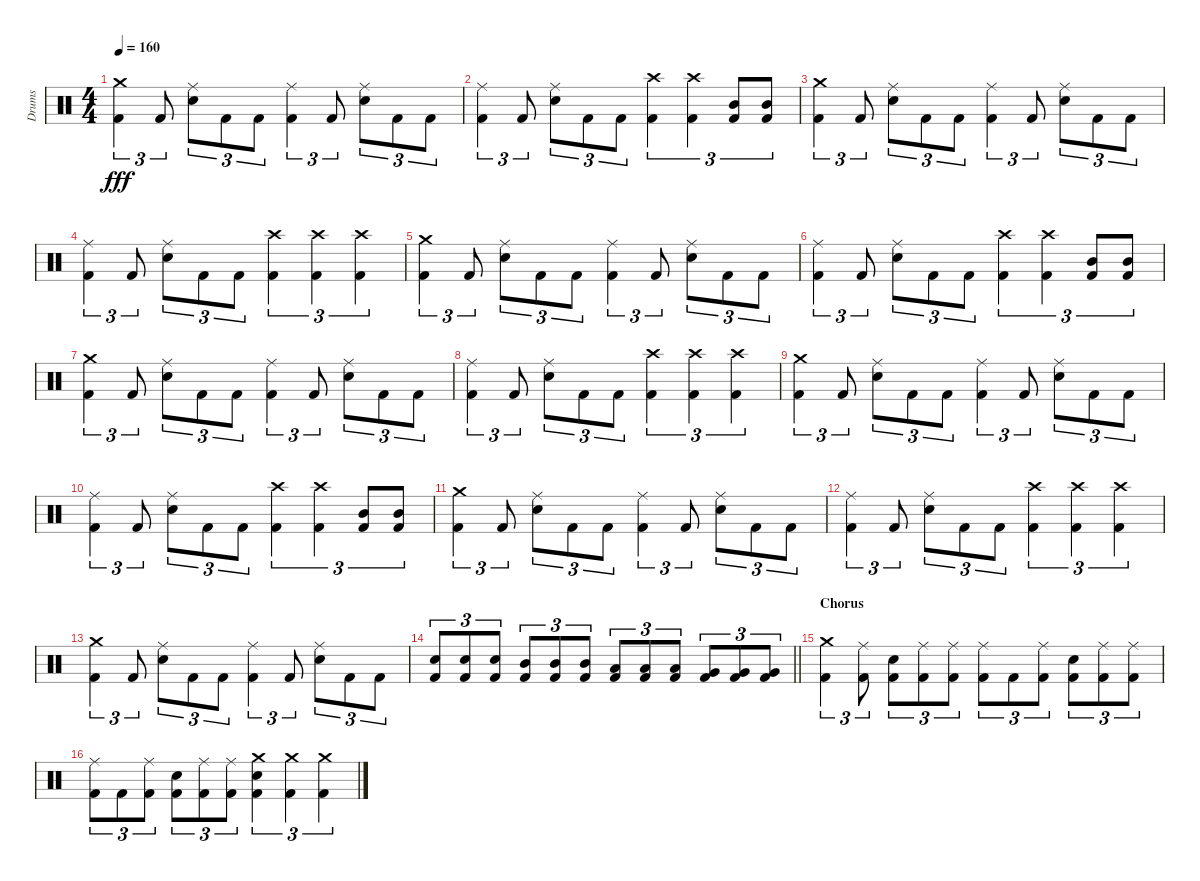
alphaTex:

\track ("Drums" "Drums") {instrument percussion}
\staff {score}
\articulation defaults
\ts (4 4)
\tempo 160
\clef neutral
\ks c
("Crash medium (hit)" "Kick (hit) 2").4{tu (3 2) dy fff} "Kick (hit) 2".8{tu (3 2)} ("Ride (middle)" "Snare (hit) 2").8{tu (3 2)} "Kick (hit) 2".8{tu (3 2)} "Kick (hit) 2".8{tu (3 2)} ("Ride (middle)" "Kick (hit) 2").4{tu (3 2)} "Kick (hit) 2".8{tu (3 2)} ("Ride (middle)" "Snare (hit) 2").8{tu (3 2)} "Kick (hit) 2".8{tu (3 2)} "Kick (hit) 2".8{tu (3 2)} |
("Ride (middle)" "Kick (hit) 2").4{tu (3 2)} "Kick (hit) 2".8{tu (3 2)} ("Ride (middle)" "Snare (hit) 2").8{tu (3 2)} "Kick (hit) 2".8{tu (3 2)} "Kick (hit) 2".8{tu (3 2)} ("Crash high (hit)" "Kick (hit) 2").4{tu (3 2)} ("Crash high (hit)" "Kick (hit) 2").4{tu (3 2)} ("Mid Tom (hit)" "Kick (hit) 2").8{tu (3 2)} ("Mid Tom (hit)" "Kick (hit) 2").8{tu (3 2)} |
("Crash medium (hit)" "Kick (hit) 2").4{tu (3 2)} "Kick (hit) 2".8{tu (3 2)} ("Ride (middle)" "Snare (hit) 2").8{tu (3 2)} "Kick (hit) 2".8{tu (3 2)} "Kick (hit) 2".8{tu (3 2)} ("Ride (middle)" "Kick (hit) 2").4{tu (3 2)} "Kick (hit) 2".8{tu (3 2)} ("Ride (middle)" "Snare (hit) 2").8{tu (3 2)} "Kick (hit) 2".8{tu (3 2)} "Kick (hit) 2".8{tu (3 2)} |
("Ride (middle)" "Kick (hit) 2").4{tu (3 2)} "Kick (hit) 2".8{tu (3 2)} ("Ride (middle)" "Snare (hit) 2").8{tu (3 2)} "Kick (hit) 2".8{tu (3 2)} "Kick (hit) 2".8{tu (3 2)} ("Crash high (hit)" "Kick (hit) 2").4{tu (3 2)} ("Crash high (hit)" "Kick (hit) 2").4{tu (3 2)} ("Crash high (hit)" "Kick (hit) 2").4{tu (3 2)} |
("Crash medium (hit)" "Kick (hit) 2").4{tu (3 2)} "Kick (hit) 2".8{tu (3 2)} ("Ride (middle)" "Snare (hit) 2").8{tu (3 2)} "Kick (hit) 2".8{tu (3 2)} "Kick (hit) 2".8{tu (3 2)} ("Ride (middle)" "Kick (hit) 2").4{tu (3 2)} "Kick (hit) 2".8{tu (3 2)} ("Ride (middle)" "Snare (hit) 2").8{tu (3 2)} "Kick (hit) 2".8{tu (3 2)} "Kick (hit) 2".8{tu (3 2)} |
("Ride (middle)" "Kick (hit) 2").4{tu (3 2)} "Kick (hit) 2".8{tu (3 2)} ("Ride (middle)" "Snare (hit) 2").8{tu (3 2)} "Kick (hit) 2".8{tu (3 2)} "Kick (hit) 2".8{tu (3 2)} ("Crash high (hit)" "Kick (hit) 2").4{tu (3 2)} ("Crash high (hit)" "Kick (hit) 2").4{tu (3 2)} ("Mid Tom (hit)" "Kick (hit) 2").8{tu (3 2)} ("Mid Tom (hit)" "Kick (hit) 2").8{tu (3 2)} |
("Crash medium (hit)" "Kick (hit) 2").4{tu (3 2)} "Kick (hit) 2".8{tu (3 2)} ("Ride (middle)" "Snare (hit) 2").8{tu (3 2)} "Kick (hit) 2".8{tu (3 2)} "Kick (hit) 2".8{tu (3 2)} ("Ride (middle)" "Kick (hit) 2").4{tu (3 2)} "Kick (hit) 2".8{tu (3 2)} ("Ride (middle)" "Snare (hit) 2").8{tu (3 2)} "Kick (hit) 2".8{tu (3 2)} "Kick (hit) 2".8{tu (3 2)} |
("Ride (middle)" "Kick (hit) 2").4{tu (3 2)} "Kick (hit) 2".8{tu (3 2)} ("Ride (middle)" "Snare (hit) 2").8{tu (3 2)} "Kick (hit) 2".8{tu (3 2)} "Kick (hit) 2".8{tu (3 2)} ("Crash high (hit)" "Kick (hit) 2").4{tu (3 2)} ("Crash high (hit)" "Kick (hit) 2").4{tu (3 2)} ("Crash high (hit)" "Kick (hit) 2").4{tu (3 2)} |
("Crash medium (hit)" "Kick (hit) 2").4{tu (3 2)} "Kick (hit) 2".8{tu (3 2)} ("Ride (middle)" "Snare (hit) 2").8{tu (3 2)} "Kick (hit) 2".8{tu (3 2)} "Kick (hit) 2".8{tu (3 2)} ("Ride (middle)" "Kick (hit) 2").4{tu (3 2)} "Kick (hit) 2".8{tu (3 2)} ("Ride (middle)" "Snare (hit) 2").8{tu (3 2)} "Kick (hit) 2".8{tu (3 2)} "Kick (hit) 2".8{tu (3 2)} |
("Ride (middle)" "Kick (hit) 2").4{tu (3 2)} "Kick (hit) 2".8{tu (3 2)} ("Ride (middle)" "Snare (hit) 2").8{tu (3 2)} "Kick (hit) 2".8{tu (3 2)} "Kick (hit) 2".8{tu (3 2)} ("Crash high (hit)" "Kick (hit) 2").4{tu (3 2)} ("Crash high (hit)" "Kick (hit) 2").4{tu (3 2)} ("Mid Tom (hit)" "Kick (hit) 2").8{tu (3 2)} ("Mid Tom (hit)" "Kick (hit) 2").8{tu (3 2)} |
("Crash medium (hit)" "Kick (hit) 2").4{tu (3 2)} "Kick (hit) 2".8{tu (3 2)} ("Ride (middle)" "Snare (hit) 2").8{tu (3 2)} "Kick (hit) 2".8{tu (3 2)} "Kick (hit) 2".8{tu (3 2)} ("Ride (middle)" "Kick (hit) 2").4{tu (3 2)} "Kick (hit) 2".8{tu (3 2)} ("Ride (middle)" "Snare (hit) 2").8{tu (3 2)} "Kick (hit) 2".8{tu (3 2)} "Kick (hit) 2".8{tu (3 2)} |
("Ride (middle)" "Kick (hit) 2").4{tu (3 2)} "Kick (hit) 2".8{tu (3 2)} ("Ride (middle)" "Snare (hit) 2").8{tu (3 2)} "Kick (hit) 2".8{tu (3 2)} "Kick (hit) 2".8{tu (3 2)} ("Crash high (hit)" "Kick (hit) 2").4{tu (3 2)} ("Crash high (hit)" "Kick (hit) 2").4{tu (3 2)} ("Crash high (hit)" "Kick (hit) 2").4{tu (3 2)} |
("Crash medium (hit)" "Kick (hit) 2").4{tu (3 2)} "Kick (hit) 2".8{tu (3 2)} ("Ride (middle)" "Snare (hit) 2").8{tu (3 2)} "Kick (hit) 2".8{tu (3 2)} "Kick (hit) 2".8{tu (3 2)} ("Ride (middle)" "Kick (hit) 2").4{tu (3 2)} "Kick (hit) 2".8{tu (3 2)} ("Ride (middle)" "Snare (hit) 2").8{tu (3 2)} "Kick (hit) 2".8{tu (3 2)} "Kick (hit) 2".8{tu (3 2)} |
\barLineRight lightlight
("Snare (hit) 2" "Kick (hit) 2").8{tu (3 2)} ("Snare (hit) 2" "Kick (hit) 2").8{tu (3 2)} ("Snare (hit) 2" "Kick (hit) 2").8{tu (3 2)} ("Mid Tom (hit)" "Kick (hit) 2").8{tu (3 2)} ("Mid Tom (hit)" "Kick (hit) 2").8{tu (3 2)} ("Mid Tom (hit)" "Kick (hit) 2").8{tu (3 2)} ("Low Tom (hit)" "Kick (hit) 2").8{tu (3 2)} ("Low Tom (hit)" "Kick (hit) 2").8{tu (3 2)} ("Low Tom (hit)" "Kick (hit) 2").8{tu (3 2)} ("Very Low Tom (hit)" "Kick (hit) 2").8{tu (3 2)} ("Very Low Tom (hit)" "Kick (hit) 2").8{tu (3 2)} ("Very Low Tom (hit)" "Kick (hit) 2").8{tu (3 2)} |
\section ("" "Chorus")
("Crash medium (hit)" "Kick (hit) 2").4{tu (3 2)} ("Ride (middle)" "Kick (hit) 2").8{tu (3 2)} ("Snare (hit) 2" "Kick (hit) 2").8{tu (3 2)} ("Ride (middle)" "Kick (hit) 2").8{tu (3 2)} ("Ride (middle)" "Kick (hit) 2").8{tu (3 2)} ("Ride (middle)" "Kick (hit) 2").8{tu (3 2)} "Kick (hit) 2".8{tu (3 2)} ("Ride (middle)" "Kick (hit) 2").8{tu (3 2)} ("Snare (hit) 2" "Kick (hit) 2").8{tu (3 2)} ("Ride (middle)" "Kick (hit) 2").8{tu (3 2)} ("Ride (middle)" "Kick (hit) 2").8{tu (3 2)} |
("Ride (middle)" "Kick (hit) 2").8{tu (3 2)} "Kick (hit) 2".8{tu (3 2)} ("Ride (middle)" "Kick (hit) 2").8{tu (3 2)} ("Snare (hit) 2" "Kick (hit) 2").8{tu (3 2)} ("Ride (middle)" "Kick (hit) 2").8{tu (3 2)} ("Ride (middle)" "Kick (hit) 2").8{tu (3 2)} ("Crash medium (hit)" "Snare (hit) 2" "Kick (hit) 2").4{tu (3 2)} ("Crash medium (hit)" "Kick (hit) 2").4{tu (3 2)} ("Crash medium (hit)" "Kick (hit) 2").4{tu (3 2)}
